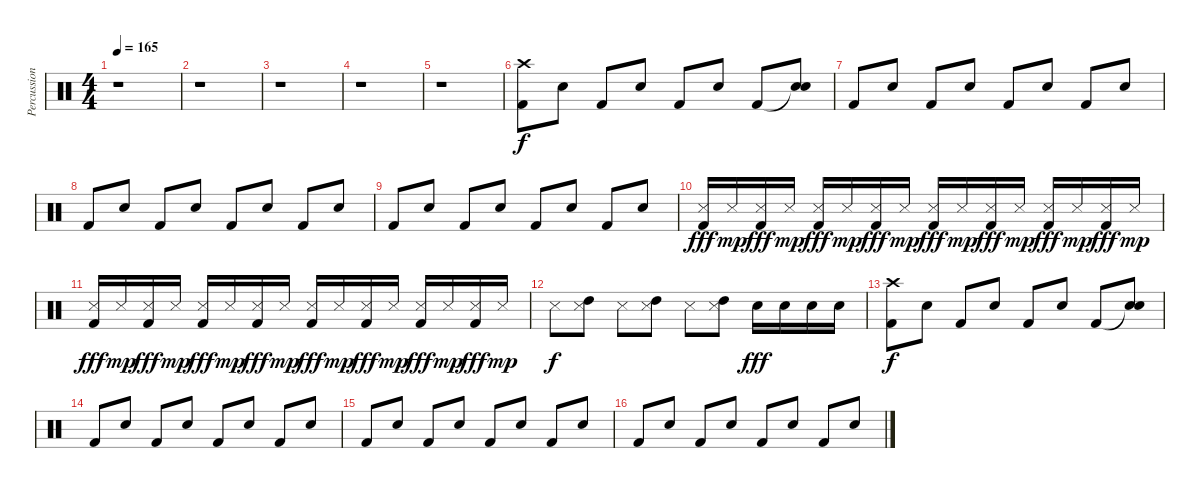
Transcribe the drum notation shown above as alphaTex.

\track ("Percussions" "Percussion") {instrument percussion}
\staff {score}
\articulation defaults
\ts (4 4)
\tempo 165
\clef neutral
\ks c
r.1{dy f} |
r.1 |
r.1 |
r.1 |
r.1 |
("Crash high (hit)" "Kick (hit) 2").8 "Electric Snare (hit)".8 "Kick (hit) 2".8 "Electric Snare (hit)".8 "Kick (hit) 2".8 "Electric Snare (hit)".8 "Kick (hit) 2".8 ("Snare (hit)"{t} "Electric Snare (hit)").8 |
"Kick (hit) 2".8 "Electric Snare (hit)".8 "Kick (hit) 2".8 "Electric Snare (hit)".8 "Kick (hit) 2".8 "Electric Snare (hit)".8 "Kick (hit) 2".8 "Electric Snare (hit)".8 |
"Kick (hit) 2".8 "Electric Snare (hit)".8 "Kick (hit) 2".8 "Electric Snare (hit)".8 "Kick (hit) 2".8 "Electric Snare (hit)".8 "Kick (hit) 2".8 "Electric Snare (hit)".8 |
"Kick (hit) 2".8 "Electric Snare (hit)".8 "Kick (hit) 2".8 "Electric Snare (hit)".8 "Kick (hit) 2".8 "Electric Snare (hit)".8 "Kick (hit) 2".8 "Electric Snare (hit)".8 |
("Snare (side stick) 3" "Kick (hit) 2").16{dy fff} "Snare (side stick) 3".16{dy mp} ("Snare (side stick) 3" "Kick (hit) 2").16{dy fff} "Snare (side stick) 3".16{dy mp} ("Snare (side stick) 3" "Kick (hit) 2").16{dy fff} "Snare (side stick) 3".16{dy mp} ("Snare (side stick) 3" "Kick (hit) 2").16{dy fff} "Snare (side stick) 3".16{dy mp} ("Snare (side stick) 3" "Kick (hit) 2").16{dy fff} "Snare (side stick) 3".16{dy mp} ("Snare (side stick) 3" "Kick (hit) 2").16{dy fff} "Snare (side stick) 3".16{dy mp} ("Snare (side stick) 3" "Kick (hit) 2").16{dy fff} "Snare (side stick) 3".16{dy mp} ("Snare (side stick) 3" "Kick (hit) 2").16{dy fff} "Snare (side stick) 3".16{dy mp} |
("Snare (side stick) 3" "Kick (hit) 2").16{dy fff} "Snare (side stick) 3".16{dy mp} ("Snare (side stick) 3" "Kick (hit) 2").16{dy fff} "Snare (side stick) 3".16{dy mp} ("Snare (side stick) 3" "Kick (hit) 2").16{dy fff} "Snare (side stick) 3".16{dy mp} ("Snare (side stick) 3" "Kick (hit) 2").16{dy fff} "Snare (side stick) 3".16{dy mp} ("Snare (side stick) 3" "Kick (hit) 2").16{dy fff} "Snare (side stick) 3".16{dy mp} ("Snare (side stick) 3" "Kick (hit) 2").16{dy fff} "Snare (side stick) 3".16{dy mp} ("Snare (side stick) 3" "Kick (hit) 2").16{dy fff} "Snare (side stick) 3".16{dy mp} ("Snare (side stick) 3" "Kick (hit) 2").16{dy fff} "Snare (side stick) 3".16{dy mp} |
"Snare (side stick) 3".8{dy f} ("High Tom (hit)" "Snare (side stick) 3").8 "Snare (side stick) 3".8 ("High Tom (hit)" "Snare (side stick) 3").8 "Snare (side stick) 3".8 ("High Tom (hit)" "Snare (side stick) 3").8 "Electric Snare (hit)".16{dy fff} "Electric Snare (hit)".16 "Electric Snare (hit)".16 "Electric Snare (hit)".16 |
("Crash high (hit)" "Kick (hit) 2").8{dy f} "Electric Snare (hit)".8 "Kick (hit) 2".8 "Electric Snare (hit)".8 "Kick (hit) 2".8 "Electric Snare (hit)".8 "Kick (hit) 2".8 ("Snare (hit)"{t} "Electric Snare (hit)").8 |
"Kick (hit) 2".8 "Electric Snare (hit)".8 "Kick (hit) 2".8 "Electric Snare (hit)".8 "Kick (hit) 2".8 "Electric Snare (hit)".8 "Kick (hit) 2".8 "Electric Snare (hit)".8 |
"Kick (hit) 2".8 "Electric Snare (hit)".8 "Kick (hit) 2".8 "Electric Snare (hit)".8 "Kick (hit) 2".8 "Electric Snare (hit)".8 "Kick (hit) 2".8 "Electric Snare (hit)".8 |
"Kick (hit) 2".8 "Electric Snare (hit)".8 "Kick (hit) 2".8 "Electric Snare (hit)".8 "Kick (hit) 2".8 "Electric Snare (hit)".8 "Kick (hit) 2".8 "Electric Snare (hit)".8
